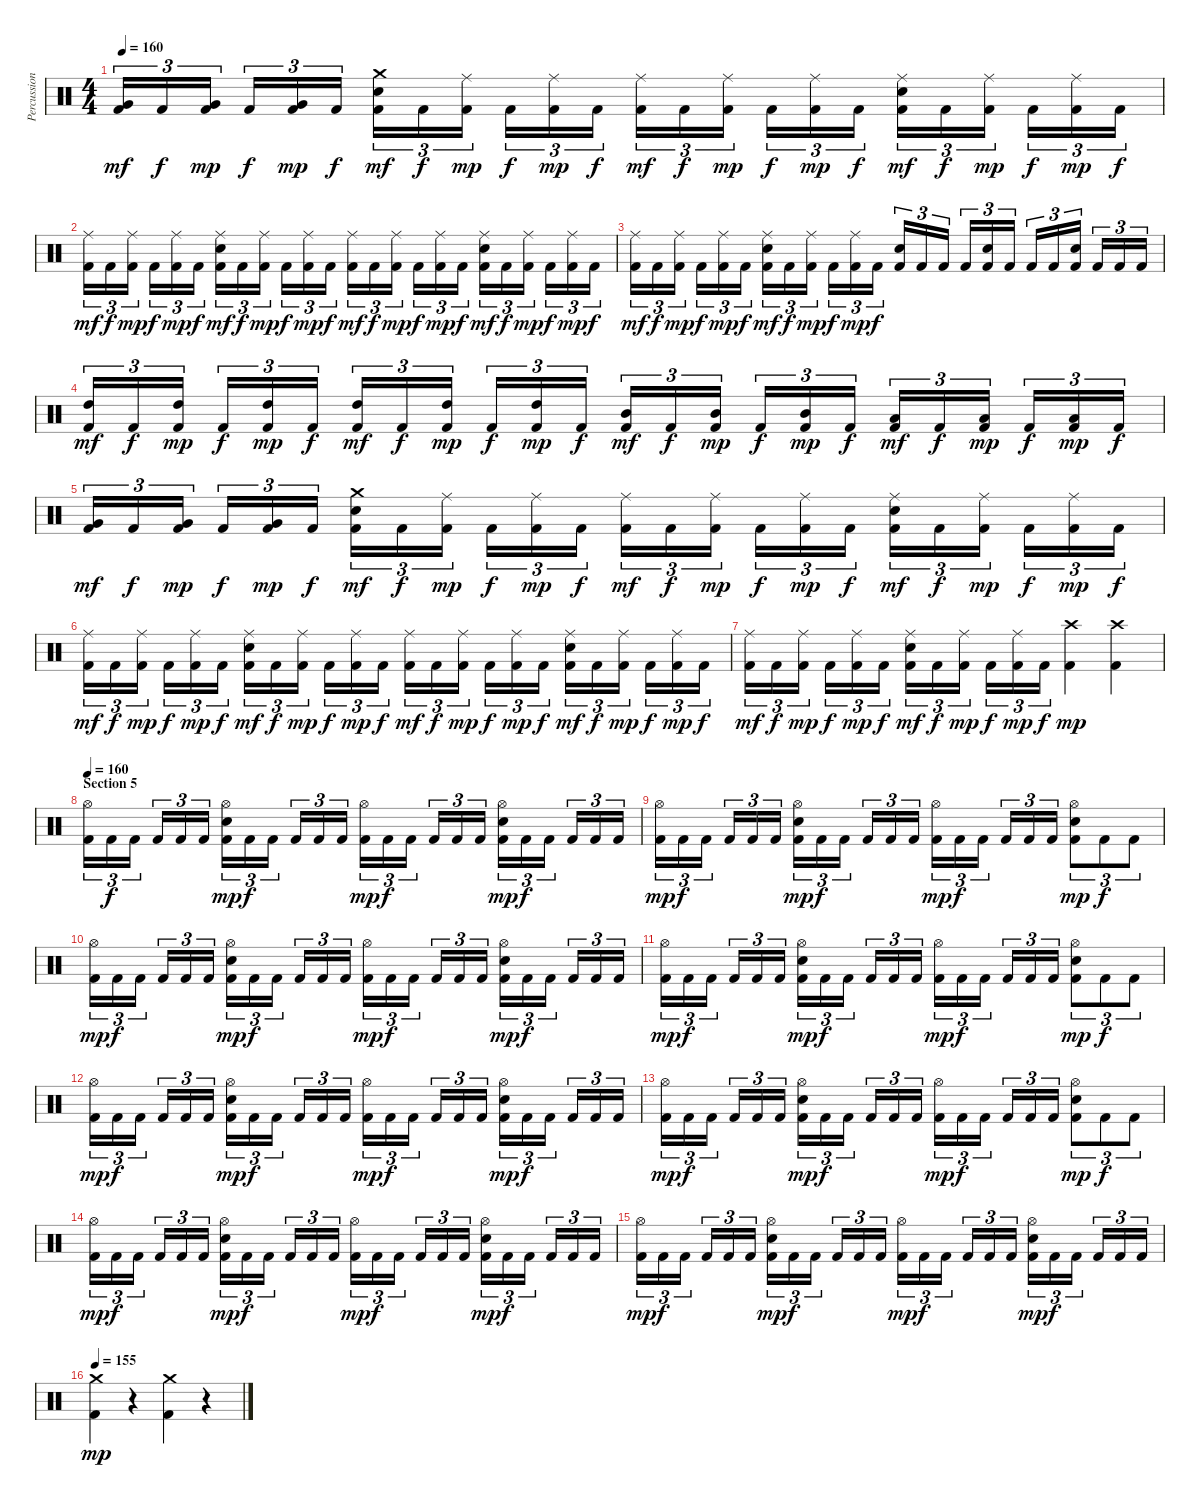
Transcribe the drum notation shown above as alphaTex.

\track ("Percussion" "Percussion") {instrument percussion}
\staff {score}
\articulation defaults
\ts (4 4)
\tempo 160
\clef neutral
\ks c
("Very Low Tom (hit)" "Kick (hit) 2").16{tu (3 2) dy mf} "Kick (hit) 2".16{tu (3 2) dy f} ("Very Low Tom (hit)" "Kick (hit) 2").16{tu (3 2) dy mp} "Kick (hit) 2".16{tu (3 2) dy f} ("Very Low Tom (hit)" "Kick (hit) 2").16{tu (3 2) dy mp} "Kick (hit) 2".16{tu (3 2) dy f} ("Crash medium (hit)" "Electric Snare (hit)" "Kick (hit) 2").16{tu (3 2) dy mf} "Kick (hit) 2".16{tu (3 2) dy f} ("Ride (middle)" "Kick (hit) 2").16{tu (3 2) dy mp} "Kick (hit) 2".16{tu (3 2) dy f} ("Ride (middle)" "Kick (hit) 2").16{tu (3 2) dy mp} "Kick (hit) 2".16{tu (3 2) dy f} ("Ride (middle)" "Kick (hit) 2").16{tu (3 2) dy mf} "Kick (hit) 2".16{tu (3 2) dy f} ("Ride (middle)" "Kick (hit) 2").16{tu (3 2) dy mp} "Kick (hit) 2".16{tu (3 2) dy f} ("Ride (middle)" "Kick (hit) 2").16{tu (3 2) dy mp} "Kick (hit) 2".16{tu (3 2) dy f} ("Ride (middle)" "Electric Snare (hit)" "Kick (hit) 2").16{tu (3 2) dy mf} "Kick (hit) 2".16{tu (3 2) dy f} ("Ride (middle)" "Kick (hit) 2").16{tu (3 2) dy mp} "Kick (hit) 2".16{tu (3 2) dy f} ("Ride (middle)" "Kick (hit) 2").16{tu (3 2) dy mp} "Kick (hit) 2".16{tu (3 2) dy f} |
("Ride (middle)" "Kick (hit) 2").16{tu (3 2) dy mf} "Kick (hit) 2".16{tu (3 2) dy f} ("Ride (middle)" "Kick (hit) 2").16{tu (3 2) dy mp} "Kick (hit) 2".16{tu (3 2) dy f} ("Ride (middle)" "Kick (hit) 2").16{tu (3 2) dy mp} "Kick (hit) 2".16{tu (3 2) dy f} ("Ride (middle)" "Electric Snare (hit)" "Kick (hit) 2").16{tu (3 2) dy mf} "Kick (hit) 2".16{tu (3 2) dy f} ("Ride (middle)" "Kick (hit) 2").16{tu (3 2) dy mp} "Kick (hit) 2".16{tu (3 2) dy f} ("Ride (middle)" "Kick (hit) 2").16{tu (3 2) dy mp} "Kick (hit) 2".16{tu (3 2) dy f} ("Ride (middle)" "Kick (hit) 2").16{tu (3 2) dy mf} "Kick (hit) 2".16{tu (3 2) dy f} ("Ride (middle)" "Kick (hit) 2").16{tu (3 2) dy mp} "Kick (hit) 2".16{tu (3 2) dy f} ("Ride (middle)" "Kick (hit) 2").16{tu (3 2) dy mp} "Kick (hit) 2".16{tu (3 2) dy f} ("Ride (middle)" "Electric Snare (hit)" "Kick (hit) 2").16{tu (3 2) dy mf} "Kick (hit) 2".16{tu (3 2) dy f} ("Ride (middle)" "Kick (hit) 2").16{tu (3 2) dy mp} "Kick (hit) 2".16{tu (3 2) dy f} ("Ride (middle)" "Kick (hit) 2").16{tu (3 2) dy mp} "Kick (hit) 2".16{tu (3 2) dy f} |
("Ride (middle)" "Kick (hit) 2").16{tu (3 2) dy mf} "Kick (hit) 2".16{tu (3 2) dy f} ("Ride (middle)" "Kick (hit) 2").16{tu (3 2) dy mp} "Kick (hit) 2".16{tu (3 2) dy f} ("Ride (middle)" "Kick (hit) 2").16{tu (3 2) dy mp} "Kick (hit) 2".16{tu (3 2) dy f} ("Ride (middle)" "Electric Snare (hit)" "Kick (hit) 2").16{tu (3 2) dy mf} "Kick (hit) 2".16{tu (3 2) dy f} ("Ride (middle)" "Kick (hit) 2").16{tu (3 2) dy mp} "Kick (hit) 2".16{tu (3 2) dy f} ("Ride (middle)" "Kick (hit) 2").16{tu (3 2) dy mp} "Kick (hit) 2".16{tu (3 2) dy f} ("Electric Snare (hit)" "Kick (hit) 2").16{tu (3 2)} "Kick (hit) 2".16{tu (3 2)} "Kick (hit) 2".16{tu (3 2)} "Kick (hit) 2".16{tu (3 2)} ("Electric Snare (hit)" "Kick (hit) 2").16{tu (3 2)} "Kick (hit) 2".16{tu (3 2)} "Kick (hit) 2".16{tu (3 2)} "Kick (hit) 2".16{tu (3 2)} ("Electric Snare (hit)" "Kick (hit) 2").16{tu (3 2)} "Kick (hit) 2".16{tu (3 2)} "Kick (hit) 2".16{tu (3 2)} "Kick (hit) 2".16{tu (3 2)} |
("High Tom (hit)" "Kick (hit) 2").16{tu (3 2) dy mf} "Kick (hit) 2".16{tu (3 2) dy f} ("High Tom (hit)" "Kick (hit) 2").16{tu (3 2) dy mp} "Kick (hit) 2".16{tu (3 2) dy f} ("High Tom (hit)" "Kick (hit) 2").16{tu (3 2) dy mp} "Kick (hit) 2".16{tu (3 2) dy f} ("High Tom (hit)" "Kick (hit) 2").16{tu (3 2) dy mf} "Kick (hit) 2".16{tu (3 2) dy f} ("High Tom (hit)" "Kick (hit) 2").16{tu (3 2) dy mp} "Kick (hit) 2".16{tu (3 2) dy f} ("High Tom (hit)" "Kick (hit) 2").16{tu (3 2) dy mp} "Kick (hit) 2".16{tu (3 2) dy f} ("Mid Tom (hit)" "Kick (hit) 2").16{tu (3 2) dy mf} "Kick (hit) 2".16{tu (3 2) dy f} ("Mid Tom (hit)" "Kick (hit) 2").16{tu (3 2) dy mp} "Kick (hit) 2".16{tu (3 2) dy f} ("Mid Tom (hit)" "Kick (hit) 2").16{tu (3 2) dy mp} "Kick (hit) 2".16{tu (3 2) dy f} ("Low Tom (hit)" "Kick (hit) 2").16{tu (3 2) dy mf} "Kick (hit) 2".16{tu (3 2) dy f} ("Low Tom (hit)" "Kick (hit) 2").16{tu (3 2) dy mp} "Kick (hit) 2".16{tu (3 2) dy f} ("Low Tom (hit)" "Kick (hit) 2").16{tu (3 2) dy mp} "Kick (hit) 2".16{tu (3 2) dy f} |
("Very Low Tom (hit)" "Kick (hit) 2").16{tu (3 2) dy mf} "Kick (hit) 2".16{tu (3 2) dy f} ("Very Low Tom (hit)" "Kick (hit) 2").16{tu (3 2) dy mp} "Kick (hit) 2".16{tu (3 2) dy f} ("Very Low Tom (hit)" "Kick (hit) 2").16{tu (3 2) dy mp} "Kick (hit) 2".16{tu (3 2) dy f} ("Crash medium (hit)" "Electric Snare (hit)" "Kick (hit) 2").16{tu (3 2) dy mf} "Kick (hit) 2".16{tu (3 2) dy f} ("Ride (middle)" "Kick (hit) 2").16{tu (3 2) dy mp} "Kick (hit) 2".16{tu (3 2) dy f} ("Ride (middle)" "Kick (hit) 2").16{tu (3 2) dy mp} "Kick (hit) 2".16{tu (3 2) dy f} ("Ride (middle)" "Kick (hit) 2").16{tu (3 2) dy mf} "Kick (hit) 2".16{tu (3 2) dy f} ("Ride (middle)" "Kick (hit) 2").16{tu (3 2) dy mp} "Kick (hit) 2".16{tu (3 2) dy f} ("Ride (middle)" "Kick (hit) 2").16{tu (3 2) dy mp} "Kick (hit) 2".16{tu (3 2) dy f} ("Ride (middle)" "Electric Snare (hit)" "Kick (hit) 2").16{tu (3 2) dy mf} "Kick (hit) 2".16{tu (3 2) dy f} ("Ride (middle)" "Kick (hit) 2").16{tu (3 2) dy mp} "Kick (hit) 2".16{tu (3 2) dy f} ("Ride (middle)" "Kick (hit) 2").16{tu (3 2) dy mp} "Kick (hit) 2".16{tu (3 2) dy f} |
("Ride (middle)" "Kick (hit) 2").16{tu (3 2) dy mf} "Kick (hit) 2".16{tu (3 2) dy f} ("Ride (middle)" "Kick (hit) 2").16{tu (3 2) dy mp} "Kick (hit) 2".16{tu (3 2) dy f} ("Ride (middle)" "Kick (hit) 2").16{tu (3 2) dy mp} "Kick (hit) 2".16{tu (3 2) dy f} ("Ride (middle)" "Electric Snare (hit)" "Kick (hit) 2").16{tu (3 2) dy mf} "Kick (hit) 2".16{tu (3 2) dy f} ("Ride (middle)" "Kick (hit) 2").16{tu (3 2) dy mp} "Kick (hit) 2".16{tu (3 2) dy f} ("Ride (middle)" "Kick (hit) 2").16{tu (3 2) dy mp} "Kick (hit) 2".16{tu (3 2) dy f} ("Ride (middle)" "Kick (hit) 2").16{tu (3 2) dy mf} "Kick (hit) 2".16{tu (3 2) dy f} ("Ride (middle)" "Kick (hit) 2").16{tu (3 2) dy mp} "Kick (hit) 2".16{tu (3 2) dy f} ("Ride (middle)" "Kick (hit) 2").16{tu (3 2) dy mp} "Kick (hit) 2".16{tu (3 2) dy f} ("Ride (middle)" "Electric Snare (hit)" "Kick (hit) 2").16{tu (3 2) dy mf} "Kick (hit) 2".16{tu (3 2) dy f} ("Ride (middle)" "Kick (hit) 2").16{tu (3 2) dy mp} "Kick (hit) 2".16{tu (3 2) dy f} ("Ride (middle)" "Kick (hit) 2").16{tu (3 2) dy mp} "Kick (hit) 2".16{tu (3 2) dy f} |
("Ride (middle)" "Kick (hit) 2").16{tu (3 2) dy mf} "Kick (hit) 2".16{tu (3 2) dy f} ("Ride (middle)" "Kick (hit) 2").16{tu (3 2) dy mp} "Kick (hit) 2".16{tu (3 2) dy f} ("Ride (middle)" "Kick (hit) 2").16{tu (3 2) dy mp} "Kick (hit) 2".16{tu (3 2) dy f} ("Ride (middle)" "Electric Snare (hit)" "Kick (hit) 2").16{tu (3 2) dy mf} "Kick (hit) 2".16{tu (3 2) dy f} ("Ride (middle)" "Kick (hit) 2").16{tu (3 2) dy mp} "Kick (hit) 2".16{tu (3 2) dy f} ("Ride (middle)" "Kick (hit) 2").16{tu (3 2) dy mp} "Kick (hit) 2".16{tu (3 2) dy f} ("Crash high (hit)" "Kick (hit) 2").4{dy mp} ("Crash high (hit)" "Kick (hit) 2").4 |
\section ("" "Section 5")
\tempo 160
("Hi-Hat (open)" "Kick (hit) 2").16{tu (3 2)} "Kick (hit) 2".16{tu (3 2) dy f} "Kick (hit) 2".16{tu (3 2)} "Kick (hit) 2".16{tu (3 2)} "Kick (hit) 2".16{tu (3 2)} "Kick (hit) 2".16{tu (3 2)} ("Hi-Hat (open)" "Electric Snare (hit)" "Kick (hit) 2").16{tu (3 2) dy mp} "Kick (hit) 2".16{tu (3 2) dy f} "Kick (hit) 2".16{tu (3 2)} "Kick (hit) 2".16{tu (3 2)} "Kick (hit) 2".16{tu (3 2)} "Kick (hit) 2".16{tu (3 2)} ("Hi-Hat (open)" "Kick (hit) 2").16{tu (3 2) dy mp} "Kick (hit) 2".16{tu (3 2) dy f} "Kick (hit) 2".16{tu (3 2)} "Kick (hit) 2".16{tu (3 2)} "Kick (hit) 2".16{tu (3 2)} "Kick (hit) 2".16{tu (3 2)} ("Hi-Hat (open)" "Electric Snare (hit)" "Kick (hit) 2").16{tu (3 2) dy mp} "Kick (hit) 2".16{tu (3 2) dy f} "Kick (hit) 2".16{tu (3 2)} "Kick (hit) 2".16{tu (3 2)} "Kick (hit) 2".16{tu (3 2)} "Kick (hit) 2".16{tu (3 2)} |
("Hi-Hat (open)" "Kick (hit) 2").16{tu (3 2) dy mp} "Kick (hit) 2".16{tu (3 2) dy f} "Kick (hit) 2".16{tu (3 2)} "Kick (hit) 2".16{tu (3 2)} "Kick (hit) 2".16{tu (3 2)} "Kick (hit) 2".16{tu (3 2)} ("Hi-Hat (open)" "Electric Snare (hit)" "Kick (hit) 2").16{tu (3 2) dy mp} "Kick (hit) 2".16{tu (3 2) dy f} "Kick (hit) 2".16{tu (3 2)} "Kick (hit) 2".16{tu (3 2)} "Kick (hit) 2".16{tu (3 2)} "Kick (hit) 2".16{tu (3 2)} ("Hi-Hat (open)" "Kick (hit) 2").16{tu (3 2) dy mp} "Kick (hit) 2".16{tu (3 2) dy f} "Kick (hit) 2".16{tu (3 2)} "Kick (hit) 2".16{tu (3 2)} "Kick (hit) 2".16{tu (3 2)} "Kick (hit) 2".16{tu (3 2)} ("Hi-Hat (open)" "Electric Snare (hit)" "Kick (hit) 2").8{tu (3 2) dy mp} "Kick (hit) 2".8{tu (3 2) dy f} "Kick (hit) 2".8{tu (3 2)} |
("Hi-Hat (open)" "Kick (hit) 2").16{tu (3 2) dy mp} "Kick (hit) 2".16{tu (3 2) dy f} "Kick (hit) 2".16{tu (3 2)} "Kick (hit) 2".16{tu (3 2)} "Kick (hit) 2".16{tu (3 2)} "Kick (hit) 2".16{tu (3 2)} ("Hi-Hat (open)" "Electric Snare (hit)" "Kick (hit) 2").16{tu (3 2) dy mp} "Kick (hit) 2".16{tu (3 2) dy f} "Kick (hit) 2".16{tu (3 2)} "Kick (hit) 2".16{tu (3 2)} "Kick (hit) 2".16{tu (3 2)} "Kick (hit) 2".16{tu (3 2)} ("Hi-Hat (open)" "Kick (hit) 2").16{tu (3 2) dy mp} "Kick (hit) 2".16{tu (3 2) dy f} "Kick (hit) 2".16{tu (3 2)} "Kick (hit) 2".16{tu (3 2)} "Kick (hit) 2".16{tu (3 2)} "Kick (hit) 2".16{tu (3 2)} ("Hi-Hat (open)" "Electric Snare (hit)" "Kick (hit) 2").16{tu (3 2) dy mp} "Kick (hit) 2".16{tu (3 2) dy f} "Kick (hit) 2".16{tu (3 2)} "Kick (hit) 2".16{tu (3 2)} "Kick (hit) 2".16{tu (3 2)} "Kick (hit) 2".16{tu (3 2)} |
("Hi-Hat (open)" "Kick (hit) 2").16{tu (3 2) dy mp} "Kick (hit) 2".16{tu (3 2) dy f} "Kick (hit) 2".16{tu (3 2)} "Kick (hit) 2".16{tu (3 2)} "Kick (hit) 2".16{tu (3 2)} "Kick (hit) 2".16{tu (3 2)} ("Hi-Hat (open)" "Electric Snare (hit)" "Kick (hit) 2").16{tu (3 2) dy mp} "Kick (hit) 2".16{tu (3 2) dy f} "Kick (hit) 2".16{tu (3 2)} "Kick (hit) 2".16{tu (3 2)} "Kick (hit) 2".16{tu (3 2)} "Kick (hit) 2".16{tu (3 2)} ("Hi-Hat (open)" "Kick (hit) 2").16{tu (3 2) dy mp} "Kick (hit) 2".16{tu (3 2) dy f} "Kick (hit) 2".16{tu (3 2)} "Kick (hit) 2".16{tu (3 2)} "Kick (hit) 2".16{tu (3 2)} "Kick (hit) 2".16{tu (3 2)} ("Hi-Hat (open)" "Electric Snare (hit)" "Kick (hit) 2").8{tu (3 2) dy mp} "Kick (hit) 2".8{tu (3 2) dy f} "Kick (hit) 2".8{tu (3 2)} |
("Hi-Hat (open)" "Kick (hit) 2").16{tu (3 2) dy mp} "Kick (hit) 2".16{tu (3 2) dy f} "Kick (hit) 2".16{tu (3 2)} "Kick (hit) 2".16{tu (3 2)} "Kick (hit) 2".16{tu (3 2)} "Kick (hit) 2".16{tu (3 2)} ("Hi-Hat (open)" "Electric Snare (hit)" "Kick (hit) 2").16{tu (3 2) dy mp} "Kick (hit) 2".16{tu (3 2) dy f} "Kick (hit) 2".16{tu (3 2)} "Kick (hit) 2".16{tu (3 2)} "Kick (hit) 2".16{tu (3 2)} "Kick (hit) 2".16{tu (3 2)} ("Hi-Hat (open)" "Kick (hit) 2").16{tu (3 2) dy mp} "Kick (hit) 2".16{tu (3 2) dy f} "Kick (hit) 2".16{tu (3 2)} "Kick (hit) 2".16{tu (3 2)} "Kick (hit) 2".16{tu (3 2)} "Kick (hit) 2".16{tu (3 2)} ("Hi-Hat (open)" "Electric Snare (hit)" "Kick (hit) 2").16{tu (3 2) dy mp} "Kick (hit) 2".16{tu (3 2) dy f} "Kick (hit) 2".16{tu (3 2)} "Kick (hit) 2".16{tu (3 2)} "Kick (hit) 2".16{tu (3 2)} "Kick (hit) 2".16{tu (3 2)} |
("Hi-Hat (open)" "Kick (hit) 2").16{tu (3 2) dy mp} "Kick (hit) 2".16{tu (3 2) dy f} "Kick (hit) 2".16{tu (3 2)} "Kick (hit) 2".16{tu (3 2)} "Kick (hit) 2".16{tu (3 2)} "Kick (hit) 2".16{tu (3 2)} ("Hi-Hat (open)" "Electric Snare (hit)" "Kick (hit) 2").16{tu (3 2) dy mp} "Kick (hit) 2".16{tu (3 2) dy f} "Kick (hit) 2".16{tu (3 2)} "Kick (hit) 2".16{tu (3 2)} "Kick (hit) 2".16{tu (3 2)} "Kick (hit) 2".16{tu (3 2)} ("Hi-Hat (open)" "Kick (hit) 2").16{tu (3 2) dy mp} "Kick (hit) 2".16{tu (3 2) dy f} "Kick (hit) 2".16{tu (3 2)} "Kick (hit) 2".16{tu (3 2)} "Kick (hit) 2".16{tu (3 2)} "Kick (hit) 2".16{tu (3 2)} ("Hi-Hat (open)" "Electric Snare (hit)" "Kick (hit) 2").8{tu (3 2) dy mp} "Kick (hit) 2".8{tu (3 2) dy f} "Kick (hit) 2".8{tu (3 2)} |
("Hi-Hat (open)" "Kick (hit) 2").16{tu (3 2) dy mp} "Kick (hit) 2".16{tu (3 2) dy f} "Kick (hit) 2".16{tu (3 2)} "Kick (hit) 2".16{tu (3 2)} "Kick (hit) 2".16{tu (3 2)} "Kick (hit) 2".16{tu (3 2)} ("Hi-Hat (open)" "Electric Snare (hit)" "Kick (hit) 2").16{tu (3 2) dy mp} "Kick (hit) 2".16{tu (3 2) dy f} "Kick (hit) 2".16{tu (3 2)} "Kick (hit) 2".16{tu (3 2)} "Kick (hit) 2".16{tu (3 2)} "Kick (hit) 2".16{tu (3 2)} ("Hi-Hat (open)" "Kick (hit) 2").16{tu (3 2) dy mp} "Kick (hit) 2".16{tu (3 2) dy f} "Kick (hit) 2".16{tu (3 2)} "Kick (hit) 2".16{tu (3 2)} "Kick (hit) 2".16{tu (3 2)} "Kick (hit) 2".16{tu (3 2)} ("Hi-Hat (open)" "Electric Snare (hit)" "Kick (hit) 2").16{tu (3 2) dy mp} "Kick (hit) 2".16{tu (3 2) dy f} "Kick (hit) 2".16{tu (3 2)} "Kick (hit) 2".16{tu (3 2)} "Kick (hit) 2".16{tu (3 2)} "Kick (hit) 2".16{tu (3 2)} |
("Hi-Hat (open)" "Kick (hit) 2").16{tu (3 2) dy mp} "Kick (hit) 2".16{tu (3 2) dy f} "Kick (hit) 2".16{tu (3 2)} "Kick (hit) 2".16{tu (3 2)} "Kick (hit) 2".16{tu (3 2)} "Kick (hit) 2".16{tu (3 2)} ("Hi-Hat (open)" "Electric Snare (hit)" "Kick (hit) 2").16{tu (3 2) dy mp} "Kick (hit) 2".16{tu (3 2) dy f} "Kick (hit) 2".16{tu (3 2)} "Kick (hit) 2".16{tu (3 2)} "Kick (hit) 2".16{tu (3 2)} "Kick (hit) 2".16{tu (3 2)} ("Hi-Hat (open)" "Kick (hit) 2").16{tu (3 2) dy mp} "Kick (hit) 2".16{tu (3 2) dy f} "Kick (hit) 2".16{tu (3 2)} "Kick (hit) 2".16{tu (3 2)} "Kick (hit) 2".16{tu (3 2)} "Kick (hit) 2".16{tu (3 2)} ("Hi-Hat (open)" "Electric Snare (hit)" "Kick (hit) 2").16{tu (3 2) dy mp} "Kick (hit) 2".16{tu (3 2) dy f} "Kick (hit) 2".16{tu (3 2)} "Kick (hit) 2".16{tu (3 2)} "Kick (hit) 2".16{tu (3 2)} "Kick (hit) 2".16{tu (3 2)} |
\tempo 155
("Crash medium (hit)" "Kick (hit) 2").4{dy mp} r.4 ("Crash medium (hit)" "Kick (hit) 2").4 r.4
